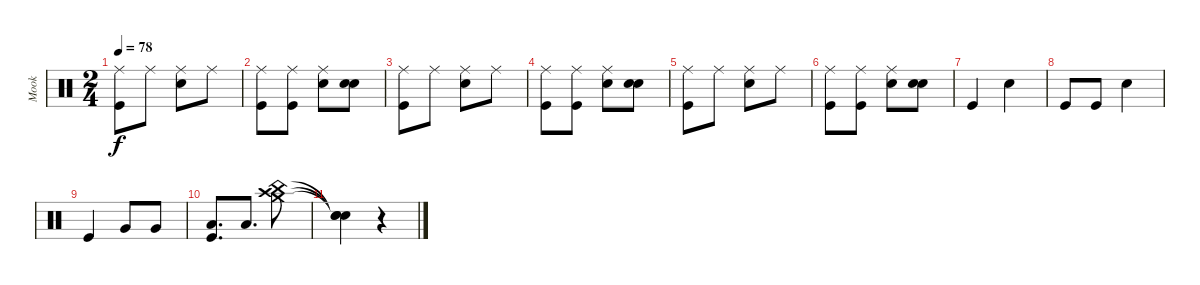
\track ("Mook" "Mook") {instrument percussion}
\staff {score}
\articulation defaults
\ts (2 4)
\tempo 78
\clef neutral
\ks c
("Ride (middle)" "Kick (hit)").8{dy f} "Ride (middle)".8 ("Ride (middle)" "Metronome (bell)").8 "Ride (middle)".8 |
("Ride (middle)" "Kick (hit)").8 ("Ride (middle)" "Kick (hit)").8 ("Ride (middle)" "Metronome (bell)").8 ("Snare (hit)" "Metronome (bell)").8 |
("Ride (middle)" "Kick (hit)").8 "Ride (middle)".8 ("Ride (middle)" "Metronome (bell)").8 "Ride (middle)".8 |
("Ride (middle)" "Kick (hit)").8 ("Ride (middle)" "Kick (hit)").8 ("Ride (middle)" "Metronome (bell)").8 ("Snare (hit)" "Metronome (bell)").8 |
("Ride (middle)" "Kick (hit)").8 "Ride (middle)".8 ("Ride (middle)" "Metronome (bell)").8 "Ride (middle)".8 |
("Ride (middle)" "Kick (hit)").8 ("Ride (middle)" "Kick (hit)").8 ("Ride (middle)" "Metronome (bell)").8 ("Snare (hit)" "Metronome (bell)").8 |
"Kick (hit)".4 "Snare (hit) 2".4 |
"Kick (hit)".8 "Kick (hit)".8 "Snare (hit) 2".4 |
"Kick (hit)".4 "Very Low Tom (hit)".8 "Very Low Tom (hit)".8 |
("Low Floor Tom (hit)" "Kick (hit)").8{d} "Low Floor Tom (hit)".8{d} ("Crash medium (hit)" "Crash high (hit)" "China (hit)").8 |
("Snare (hit)"{t} "Snare (hit)"{t} "Snare (hit)"{t}).4 r.4
